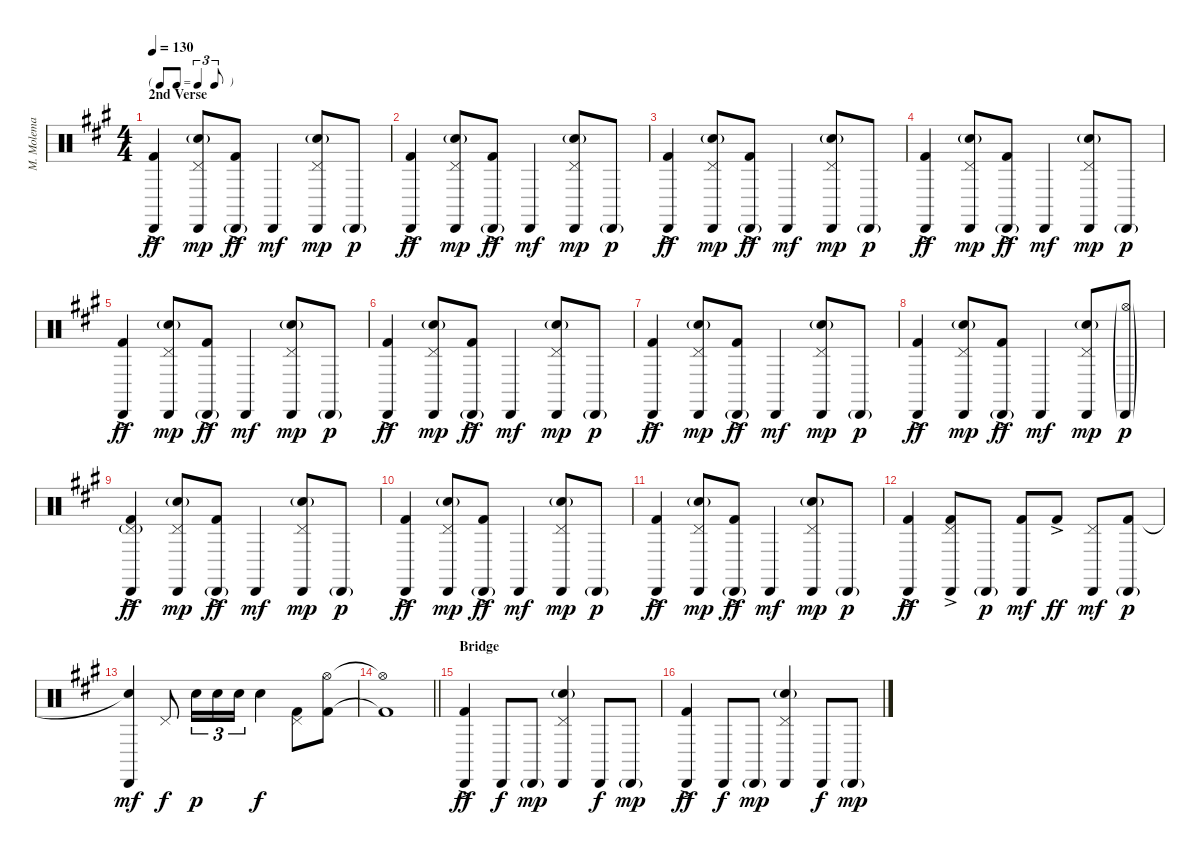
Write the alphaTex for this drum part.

\track ("M. Molema" "M. Molema") {instrument percussion}
\staff {score}
\articulation defaults
\ts (4 4)
\tf triplet8th
\section ("" "2nd Verse")
\tempo 130
\clef neutral
\ks a
("Cabasa (hit)" "Kick (hit) 2"{ac}).4{dy ff} ("Pedal Hi-Hat (hit)" "Cabasa (hit)" "Snare (hit) 2"{g}).8{dy mp} ("Cabasa (hit)"{g} "Kick (hit) 2"{ac}).8{dy ff} "Cabasa (hit)".4{dy mf} ("Pedal Hi-Hat (hit)" "Cabasa (hit)" "Snare (hit) 2"{g}).8{dy mp} "Cabasa (hit)"{g}.8{dy p} |
("Cabasa (hit)" "Kick (hit) 2"{ac}).4{dy ff} ("Pedal Hi-Hat (hit)" "Cabasa (hit)" "Snare (hit) 2"{g}).8{dy mp} ("Cabasa (hit)"{g} "Kick (hit) 2"{ac}).8{dy ff} "Cabasa (hit)".4{dy mf} ("Pedal Hi-Hat (hit)" "Cabasa (hit)" "Snare (hit) 2"{g}).8{dy mp} "Cabasa (hit)"{g}.8{dy p} |
("Cabasa (hit)" "Kick (hit) 2"{ac}).4{dy ff} ("Pedal Hi-Hat (hit)" "Cabasa (hit)" "Snare (hit) 2"{g}).8{dy mp} ("Cabasa (hit)"{g} "Kick (hit) 2"{ac}).8{dy ff} "Cabasa (hit)".4{dy mf} ("Pedal Hi-Hat (hit)" "Cabasa (hit)" "Snare (hit) 2"{g}).8{dy mp} "Cabasa (hit)"{g}.8{dy p} |
("Cabasa (hit)" "Kick (hit) 2"{ac}).4{dy ff} ("Pedal Hi-Hat (hit)" "Cabasa (hit)" "Snare (hit) 2"{g}).8{dy mp} ("Cabasa (hit)"{g} "Kick (hit) 2"{ac}).8{dy ff} "Cabasa (hit)".4{dy mf} ("Pedal Hi-Hat (hit)" "Cabasa (hit)" "Snare (hit) 2"{g}).8{dy mp} "Cabasa (hit)"{g}.8{dy p} |
("Cabasa (hit)" "Kick (hit) 2"{ac}).4{dy ff} ("Pedal Hi-Hat (hit)" "Cabasa (hit)" "Snare (hit) 2"{g}).8{dy mp} ("Cabasa (hit)"{g} "Kick (hit) 2"{ac}).8{dy ff} "Cabasa (hit)".4{dy mf} ("Pedal Hi-Hat (hit)" "Cabasa (hit)" "Snare (hit) 2"{g}).8{dy mp} "Cabasa (hit)"{g}.8{dy p} |
("Cabasa (hit)" "Kick (hit) 2"{ac}).4{dy ff} ("Pedal Hi-Hat (hit)" "Cabasa (hit)" "Snare (hit) 2"{g}).8{dy mp} ("Cabasa (hit)"{g} "Kick (hit) 2"{ac}).8{dy ff} "Cabasa (hit)".4{dy mf} ("Pedal Hi-Hat (hit)" "Cabasa (hit)" "Snare (hit) 2"{g}).8{dy mp} "Cabasa (hit)"{g}.8{dy p} |
("Cabasa (hit)" "Kick (hit) 2"{ac}).4{dy ff} ("Pedal Hi-Hat (hit)" "Cabasa (hit)" "Snare (hit) 2"{g}).8{dy mp} ("Cabasa (hit)"{g} "Kick (hit) 2"{ac}).8{dy ff} "Cabasa (hit)".4{dy mf} ("Pedal Hi-Hat (hit)" "Cabasa (hit)" "Snare (hit) 2"{g}).8{dy mp} "Cabasa (hit)"{g}.8{dy p} |
("Cabasa (hit)" "Kick (hit) 2"{ac}).4{dy ff} ("Pedal Hi-Hat (hit)" "Cabasa (hit)" "Snare (hit) 2"{g}).8{dy mp} ("Cabasa (hit)"{g} "Kick (hit) 2"{ac}).8{dy ff} "Cabasa (hit)".4{dy mf} ("Pedal Hi-Hat (hit)" "Cabasa (hit)" "Snare (hit) 2"{g}).8{dy mp} ("Hi-Hat (open)"{g} "Cabasa (hit)"{g}).8{dy p} |
("Pedal Hi-Hat (hit)"{g} "Cabasa (hit)" "Kick (hit) 2"{ac}).4{dy ff} ("Pedal Hi-Hat (hit)" "Cabasa (hit)" "Snare (hit) 2"{g}).8{dy mp} ("Cabasa (hit)"{g} "Kick (hit) 2"{ac}).8{dy ff} "Cabasa (hit)".4{dy mf} ("Pedal Hi-Hat (hit)" "Cabasa (hit)" "Snare (hit) 2"{g}).8{dy mp} "Cabasa (hit)"{g}.8{dy p} |
("Cabasa (hit)" "Kick (hit) 2"{ac}).4{dy ff} ("Pedal Hi-Hat (hit)" "Cabasa (hit)" "Snare (hit) 2"{g}).8{dy mp} ("Cabasa (hit)"{g} "Kick (hit) 2"{ac}).8{dy ff} "Cabasa (hit)".4{dy mf} ("Pedal Hi-Hat (hit)" "Cabasa (hit)" "Snare (hit) 2"{g}).8{dy mp} "Cabasa (hit)"{g}.8{dy p} |
("Cabasa (hit)" "Kick (hit) 2"{ac}).4{dy ff} ("Pedal Hi-Hat (hit)" "Cabasa (hit)" "Snare (hit) 2"{g}).8{dy mp} ("Cabasa (hit)"{g} "Kick (hit) 2"{ac}).8{dy ff} "Cabasa (hit)".4{dy mf} ("Pedal Hi-Hat (hit)" "Cabasa (hit)" "Snare (hit) 2"{g}).8{dy mp} "Cabasa (hit)"{g}.8{dy p} |
("Cabasa (hit)" "Kick (hit) 2"{ac}).4{dy ff} ("Pedal Hi-Hat (hit)" "Cabasa (hit)" "Kick (hit) 2"{ac}).8 "Cabasa (hit)"{g}.8{dy p} ("Cabasa (hit)" "Kick (hit) 2").8{dy mf} "Kick (hit) 2"{ac}.8{dy ff} ("Pedal Hi-Hat (hit)" "Cabasa (hit)").8{dy mf} ("Cabasa (hit)"{g} "Kick (hit) 2").8{dy p} |
("Cabasa (hit)" "Snare (hit)"{t}).4{dy mf} "Pedal Hi-Hat (hit)".8{dy f} "Snare (hit) 2".16{tu (3 2) dy p} "Snare (hit) 2".16{tu (3 2)} "Snare (hit) 2".16{tu (3 2)} "Snare (hit) 2".4{dy f} ("Pedal Hi-Hat (hit)" "Kick (hit) 2").8 ("Hi-Hat (open)" "Kick (hit) 2").8 |
\barLineRight lightlight
("Hi-Hat (open)"{t} "Kick (hit) 2"{t}).1 |
\section ("" "Bridge")
("Cabasa (hit)" "Kick (hit) 2"{ac}).4{dy ff} "Cabasa (hit)".8{dy f} "Cabasa (hit)"{g}.8{dy mp} ("Pedal Hi-Hat (hit)" "Cabasa (hit)" "Snare (hit) 2"{g}).4 "Cabasa (hit)".8{dy f} "Cabasa (hit)"{g}.8{dy mp} |
("Cabasa (hit)" "Kick (hit) 2"{ac}).4{dy ff} "Cabasa (hit)".8{dy f} "Cabasa (hit)"{g}.8{dy mp} ("Pedal Hi-Hat (hit)" "Cabasa (hit)" "Snare (hit) 2"{g}).4 "Cabasa (hit)".8{dy f} "Cabasa (hit)"{g}.8{dy mp}
